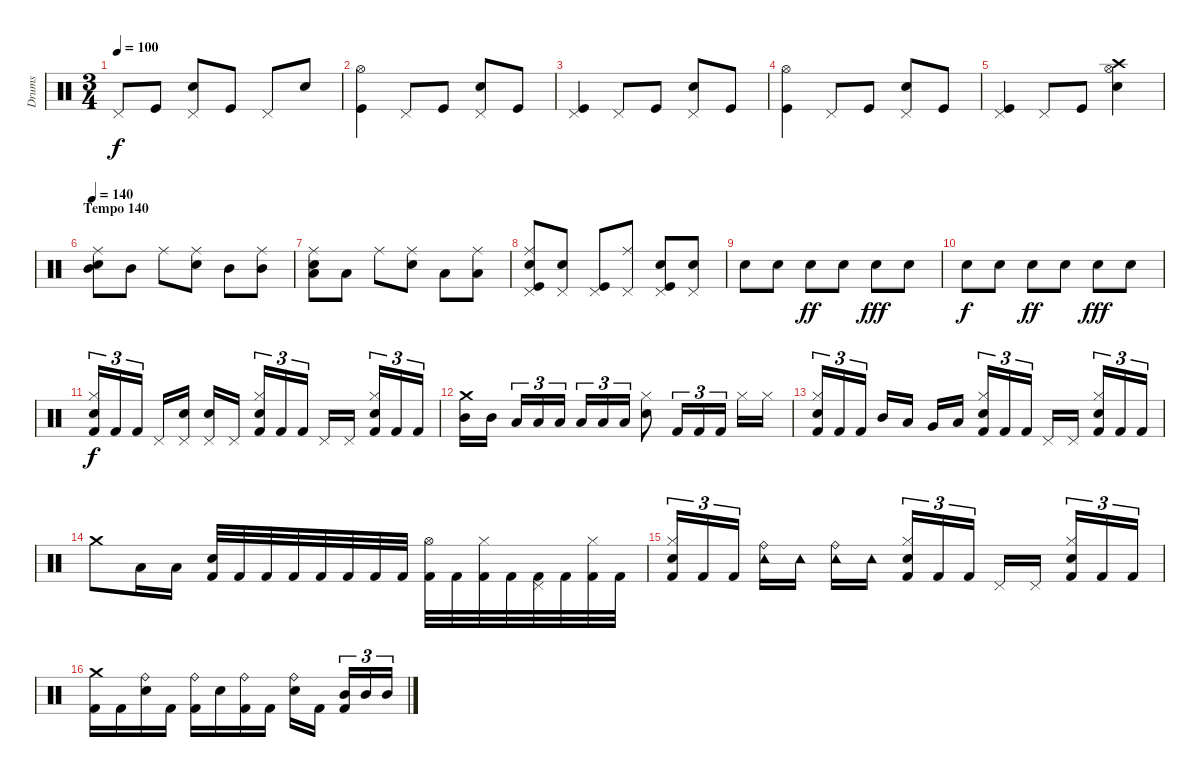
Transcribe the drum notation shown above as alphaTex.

\track ("Drums" "Drums") {instrument percussion}
\staff {score}
\articulation defaults
\ts (3 4)
\tempo 100
\clef neutral
\ks c "Pedal Hi-Hat (hit)".8{dy f} "Kick (hit)".8
("Pedal Hi-Hat (hit)" "Snare (hit) 2").8 "Kick (hit)".8 "Pedal Hi-Hat (hit)".8 "Snare (hit) 2".8 |
("Hi-Hat (open)" "Kick (hit)").4 "Pedal Hi-Hat (hit)".8 "Kick (hit)".8 ("Pedal Hi-Hat (hit)" "Snare (hit) 2").8 "Kick (hit)".8 |
("Pedal Hi-Hat (hit)" "Kick (hit)").4 "Pedal Hi-Hat (hit)".8 "Kick (hit)".8 ("Pedal Hi-Hat (hit)" "Snare (hit) 2").8 "Kick (hit)".8 |
("Hi-Hat (open)" "Kick (hit)").4 "Pedal Hi-Hat (hit)".8 "Kick (hit)".8 ("Pedal Hi-Hat (hit)" "Snare (hit) 2").8 "Kick (hit)".8 |
("Pedal Hi-Hat (hit)" "Kick (hit)").4 "Pedal Hi-Hat (hit)".8 "Kick (hit)".8 ("Crash high (hit)" "Hi-Hat (open)" "Snare (hit) 2").4 |
\section ("" "Tempo 140")
\tempo 140
("Ride (middle)" "Mid Tom (hit)" "Snare (hit) 2").8 "Mid Tom (hit)".8 "Ride (middle)".8 ("Ride (middle)" "Snare (hit) 2").8 "Mid Tom (hit)".8 ("Ride (middle)" "Mid Tom (hit)").8 |
("Ride (middle)" "Low Tom (hit)" "Snare (hit) 2").8 "Low Tom (hit)".8 "Ride (middle)".8 ("Ride (middle)" "Snare (hit) 2").8 "Low Tom (hit)".8 ("Ride (middle)" "Low Tom (hit)").8 |
("Ride (middle)" "Pedal Hi-Hat (hit)" "Snare (hit) 2" "Kick (hit)").8 ("Pedal Hi-Hat (hit)" "Snare (hit) 2").8 ("Pedal Hi-Hat (hit)" "Kick (hit)").8 ("Ride (middle)" "Pedal Hi-Hat (hit)").8 ("Pedal Hi-Hat (hit)" "Snare (hit) 2" "Kick (hit)").8 ("Pedal Hi-Hat (hit)" "Snare (hit) 2").8 |
"Snare (hit) 2".8 "Snare (hit) 2".8 "Snare (hit) 2".8{dy ff} "Snare (hit) 2".8 "Snare (hit) 2".8{dy fff} "Snare (hit) 2".8 |
"Snare (hit) 2".8{dy f} "Snare (hit) 2".8 "Snare (hit) 2".8{dy ff} "Snare (hit) 2".8 "Snare (hit) 2".8{dy fff} "Snare (hit) 2".8 |
("Hi-Hat (closed)" "Snare (hit) 2" "Kick (hit) 2").16{tu (3 2) dy f} "Kick (hit) 2".16{tu (3 2)} "Kick (hit) 2".16{tu (3 2)} "Pedal Hi-Hat (hit)".16 ("Pedal Hi-Hat (hit)" "Snare (hit) 2").16 ("Pedal Hi-Hat (hit)" "Snare (hit) 2").16 "Pedal Hi-Hat (hit)".16 ("Hi-Hat (closed)" "Snare (hit) 2" "Kick (hit) 2").16{tu (3 2)} "Kick (hit) 2".16{tu (3 2)} "Kick (hit) 2".16{tu (3 2)} "Pedal Hi-Hat (hit)".16 "Pedal Hi-Hat (hit)".16 ("Hi-Hat (closed)" "Snare (hit) 2" "Kick (hit) 2").16{tu (3 2)} "Kick (hit) 2".16{tu (3 2)} "Kick (hit) 2".16{tu (3 2)} |
("Crash medium (hit)" "Mid Tom (hit)").16 "Mid Tom (hit)".16 "Low Tom (hit)".16{tu (3 2)} "Low Tom (hit)".16{tu (3 2)} "Low Tom (hit)".16{tu (3 2)} "Low Tom (hit)".16{tu (3 2)} "Low Tom (hit)".16{tu (3 2)} "Low Tom (hit)".16{tu (3 2)} ("Hi-Hat (closed)" "Snare (hit) 2").8 "Kick (hit) 2".16{tu (3 2)} "Kick (hit) 2".16{tu (3 2)} "Kick (hit) 2".16{tu (3 2)} "Hi-Hat (closed)".16 "Hi-Hat (closed)".16 |
("Hi-Hat (closed)" "Snare (hit) 2" "Kick (hit) 2").16{tu (3 2)} "Kick (hit) 2".16{tu (3 2)} "Kick (hit) 2".16{tu (3 2)} "Mid Tom (hit)".16 "Low Tom (hit)".16 "Very Low Tom (hit)".16 "Low Floor Tom (hit)".16 ("Hi-Hat (closed)" "Snare (hit) 2" "Kick (hit) 2").16{tu (3 2)} "Kick (hit) 2".16{tu (3 2)} "Kick (hit) 2".16{tu (3 2)} "Pedal Hi-Hat (hit)".16 "Pedal Hi-Hat (hit)".16 ("Hi-Hat (closed)" "Snare (hit) 2" "Kick (hit) 2").16{tu (3 2)} "Kick (hit) 2".16{tu (3 2)} "Kick (hit) 2".16{tu (3 2)} |
"Crash medium (hit)".8 "Low Tom (hit)".16 "Low Tom (hit)".16 ("Snare (hit) 2" "Kick (hit) 2").32 "Kick (hit) 2".32 "Kick (hit) 2".32 "Kick (hit) 2".32 "Kick (hit) 2".32 "Kick (hit) 2".32 "Kick (hit) 2".32 "Kick (hit) 2".32 ("Hi-Hat (open)" "Kick (hit) 2").32 "Kick (hit) 2".32 ("Hi-Hat (closed)" "Kick (hit) 2").32 "Kick (hit) 2".32 ("Pedal Hi-Hat (hit)" "Kick (hit) 2").32 "Kick (hit) 2".32 ("Hi-Hat (closed)" "Kick (hit) 2").32 "Kick (hit) 2".32 |
("Hi-Hat (closed)" "Snare (hit) 2" "Kick (hit) 2").16{tu (3 2)} "Kick (hit) 2".16{tu (3 2)} "Kick (hit) 2".16{tu (3 2)} ("Ride (bell)" "Tambourine (hit)").16 "Tambourine (hit)".16 ("Ride (bell)" "Tambourine (hit)").16 "Tambourine (hit)".16 ("Hi-Hat (closed)" "Snare (hit) 2" "Kick (hit) 2").16{tu (3 2)} "Kick (hit) 2".16{tu (3 2)} "Kick (hit) 2".16{tu (3 2)} "Pedal Hi-Hat (hit)".16 "Pedal Hi-Hat (hit)".16 ("Hi-Hat (closed)" "Snare (hit) 2" "Kick (hit) 2").16{tu (3 2)} "Kick (hit) 2".16{tu (3 2)} "Kick (hit) 2".16{tu (3 2)} |
("Crash medium (hit)" "Kick (hit) 2").16 "Kick (hit) 2".16 ("Ride (bell)" "Snare (hit) 2").16 "Kick (hit) 2".16 ("Ride (bell)" "Kick (hit) 2").16 "Snare (hit) 2".16 ("Ride (bell)" "Kick (hit) 2").16 "Kick (hit) 2".16 ("Ride (bell)" "Snare (hit) 2").16 "Kick (hit) 2".16 ("Mid Tom (hit)" "Kick (hit) 2").16{tu (3 2)} "Mid Tom (hit)".16{tu (3 2)} "Mid Tom (hit)".16{tu (3 2)}
